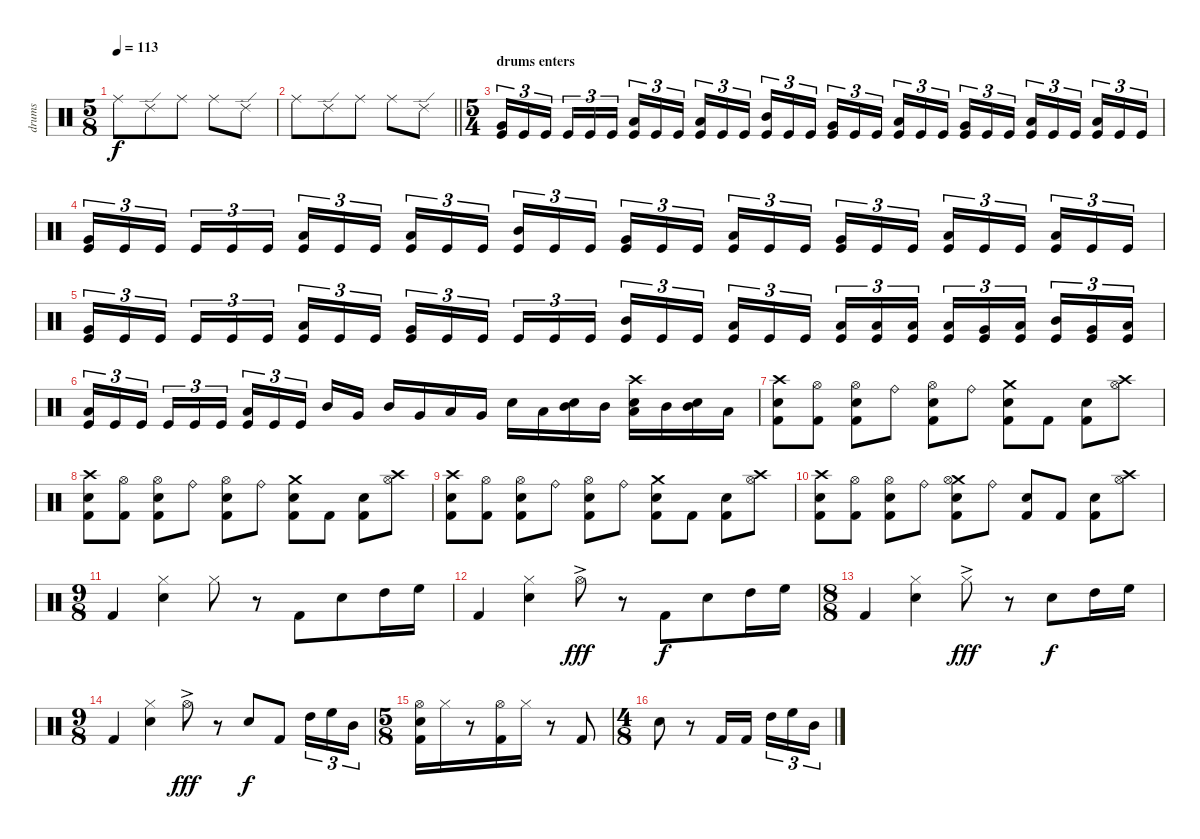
\track ("drums" "drums") {instrument percussion}
\staff {score}
\articulation defaults
\ts (5 8)
\tempo 113
\clef neutral
\ks c "Ride (middle)".8{dy f} "Ride (edge) 2".8 "Ride (middle)".8 "Ride (middle)".8 "Ride (edge) 2".8
|
\barLineRight lightlight "Ride (middle)".8 "Ride (edge) 2".8 "Ride (middle)".8 "Ride (middle)".8 "Ride (edge) 2".8
|
\ts (5 4)
\section ("" "drums enters")
("Very Low Tom (hit)" "Kick (hit)").16{tu (3 2)} "Kick (hit)".16{tu (3 2)} "Kick (hit)".16{tu (3 2)} "Kick (hit)".16{tu (3 2)} "Kick (hit)".16{tu (3 2)} "Kick (hit)".16{tu (3 2)} ("Low Floor Tom (hit)" "Kick (hit)").16{tu (3 2)} "Kick (hit)".16{tu (3 2)} "Kick (hit)".16{tu (3 2)} ("Low Tom (hit)" "Kick (hit)").16{tu (3 2)} "Kick (hit)".16{tu (3 2)} "Kick (hit)".16{tu (3 2)} ("Mid Tom (hit)" "Kick (hit)").16{tu (3 2)} "Kick (hit)".16{tu (3 2)} "Kick (hit)".16{tu (3 2)} ("Very Low Tom (hit)" "Kick (hit)").16{tu (3 2)} "Kick (hit)".16{tu (3 2)} "Kick (hit)".16{tu (3 2)} ("Low Floor Tom (hit)" "Kick (hit)").16{tu (3 2)} "Kick (hit)".16{tu (3 2)} "Kick (hit)".16{tu (3 2)} ("Very Low Tom (hit)" "Kick (hit)").16{tu (3 2)} "Kick (hit)".16{tu (3 2)} "Kick (hit)".16{tu (3 2)} ("Low Floor Tom (hit)" "Kick (hit)").16{tu (3 2)} "Kick (hit)".16{tu (3 2)} "Kick (hit)".16{tu (3 2)} ("Low Tom (hit)" "Kick (hit)").16{tu (3 2)} "Kick (hit)".16{tu (3 2)} "Kick (hit)".16{tu (3 2)} |
("Very Low Tom (hit)" "Kick (hit)").16{tu (3 2)} "Kick (hit)".16{tu (3 2)} "Kick (hit)".16{tu (3 2)} "Kick (hit)".16{tu (3 2)} "Kick (hit)".16{tu (3 2)} "Kick (hit)".16{tu (3 2)} ("Low Floor Tom (hit)" "Kick (hit)").16{tu (3 2)} "Kick (hit)".16{tu (3 2)} "Kick (hit)".16{tu (3 2)} ("Low Tom (hit)" "Kick (hit)").16{tu (3 2)} "Kick (hit)".16{tu (3 2)} "Kick (hit)".16{tu (3 2)} ("Mid Tom (hit)" "Kick (hit)").16{tu (3 2)} "Kick (hit)".16{tu (3 2)} "Kick (hit)".16{tu (3 2)} ("Very Low Tom (hit)" "Kick (hit)").16{tu (3 2)} "Kick (hit)".16{tu (3 2)} "Kick (hit)".16{tu (3 2)} ("Low Floor Tom (hit)" "Kick (hit)").16{tu (3 2)} "Kick (hit)".16{tu (3 2)} "Kick (hit)".16{tu (3 2)} ("Very Low Tom (hit)" "Kick (hit)").16{tu (3 2)} "Kick (hit)".16{tu (3 2)} "Kick (hit)".16{tu (3 2)} ("Low Floor Tom (hit)" "Kick (hit)").16{tu (3 2)} "Kick (hit)".16{tu (3 2)} "Kick (hit)".16{tu (3 2)} ("Low Tom (hit)" "Kick (hit)").16{tu (3 2)} "Kick (hit)".16{tu (3 2)} "Kick (hit)".16{tu (3 2)} |
("Very Low Tom (hit)" "Kick (hit)").16{tu (3 2)} "Kick (hit)".16{tu (3 2)} "Kick (hit)".16{tu (3 2)} "Kick (hit)".16{tu (3 2)} "Kick (hit)".16{tu (3 2)} "Kick (hit)".16{tu (3 2)} ("Low Floor Tom (hit)" "Kick (hit)").16{tu (3 2)} "Kick (hit)".16{tu (3 2)} "Kick (hit)".16{tu (3 2)} ("Very Low Tom (hit)" "Kick (hit)").16{tu (3 2)} "Kick (hit)".16{tu (3 2)} "Kick (hit)".16{tu (3 2)} "Kick (hit)".16{tu (3 2)} "Kick (hit)".16{tu (3 2)} "Kick (hit)".16{tu (3 2)} ("Mid Tom (hit)" "Kick (hit)").16{tu (3 2)} "Kick (hit)".16{tu (3 2)} "Kick (hit)".16{tu (3 2)} ("Low Floor Tom (hit)" "Kick (hit)").16{tu (3 2)} "Kick (hit)".16{tu (3 2)} "Kick (hit)".16{tu (3 2)} ("Low Tom (hit)" "Kick (hit)").16{tu (3 2)} ("Low Floor Tom (hit)" "Kick (hit)").16{tu (3 2)} ("Low Floor Tom (hit)" "Kick (hit)").16{tu (3 2)} ("Low Tom (hit)" "Kick (hit)").16{tu (3 2)} ("Very Low Tom (hit)" "Kick (hit)").16{tu (3 2)} ("Low Floor Tom (hit)" "Kick (hit)").16{tu (3 2)} ("Mid Tom (hit)" "Kick (hit)").16{tu (3 2)} ("Very Low Tom (hit)" "Kick (hit)").16{tu (3 2)} ("Low Floor Tom (hit)" "Kick (hit)").16{tu (3 2)} |
("Low Floor Tom (hit)" "Kick (hit)").16{tu (3 2)} "Kick (hit)".16{tu (3 2)} "Kick (hit)".16{tu (3 2)} "Kick (hit)".16{tu (3 2)} "Kick (hit)".16{tu (3 2)} "Kick (hit)".16{tu (3 2)} ("Low Floor Tom (hit)" "Kick (hit)").16{tu (3 2)} "Kick (hit)".16{tu (3 2)} "Kick (hit)".16{tu (3 2)} "Mid Tom (hit)".16 "Very Low Tom (hit)".16 "Mid Tom (hit)".16 "Very Low Tom (hit)".16 "Low Floor Tom (hit)".16 "Very Low Tom (hit)".16 "Electric Snare (hit)".16 "Low Floor Tom (hit)".16 ("Electric Snare (hit)" "Mid Tom (hit)").16 "Mid Tom (hit)".16 ("Crash high (hit)" "Electric Snare (hit)" "Low Floor Tom (hit)").16 "Mid Tom (hit)".16 ("Electric Snare (hit)" "Mid Tom (hit)").16 "Low Floor Tom (hit)".16 |
("Crash high (hit)" "Kick (hit) 2" "Electric Snare (hit)").8 ("Hi-Hat (open)" "Kick (hit) 2").8 ("Kick (hit) 2" "Hi-Hat (open)" "Electric Snare (hit)").8 "Ride (bell)".8 ("Kick (hit) 2" "Hi-Hat (open)" "Electric Snare (hit)").8 "Ride (bell)".8 ("Crash medium (hit)" "Kick (hit) 2" "Electric Snare (hit)").8 "Kick (hit) 2".8 ("Kick (hit) 2" "Electric Snare (hit)").8 ("Crash high (hit)" "Hi-Hat (open)").8 |
("Crash high (hit)" "Kick (hit) 2" "Electric Snare (hit)").8 ("Hi-Hat (open)" "Kick (hit) 2").8 ("Kick (hit) 2" "Hi-Hat (open)" "Electric Snare (hit)").8 "Ride (bell)".8 ("Kick (hit) 2" "Hi-Hat (open)" "Electric Snare (hit)").8 "Ride (bell)".8 ("Crash medium (hit)" "Kick (hit) 2" "Electric Snare (hit)").8 "Kick (hit) 2".8 ("Kick (hit) 2" "Electric Snare (hit)").8 ("Crash high (hit)" "Hi-Hat (open)").8 |
("Crash high (hit)" "Kick (hit) 2" "Electric Snare (hit)").8 ("Hi-Hat (open)" "Kick (hit) 2").8 ("Kick (hit) 2" "Hi-Hat (open)" "Electric Snare (hit)").8 "Ride (bell)".8 ("Kick (hit) 2" "Hi-Hat (open)" "Electric Snare (hit)").8 "Ride (bell)".8 ("Crash medium (hit)" "Kick (hit) 2" "Electric Snare (hit)").8 "Kick (hit) 2".8 ("Kick (hit) 2" "Electric Snare (hit)").8 ("Crash high (hit)" "Hi-Hat (open)").8 |
("Crash high (hit)" "Kick (hit) 2" "Electric Snare (hit)").8 ("Hi-Hat (open)" "Kick (hit) 2").8 ("Kick (hit) 2" "Hi-Hat (open)" "Electric Snare (hit)").8 "Ride (bell)".8 ("Crash medium (hit)" "Kick (hit) 2" "Hi-Hat (open)" "Electric Snare (hit)").8 "Ride (bell)".8 ("Kick (hit) 2" "Electric Snare (hit)").8 "Kick (hit) 2".8 ("Kick (hit) 2" "Electric Snare (hit)").8 ("Crash high (hit)" "Hi-Hat (open)").8 |
\ts (9 8)
"Kick (hit) 2".4 ("Electric Snare (hit)" "Hi-Hat (closed)").4 "Hi-Hat (closed)".8 r.8 "Kick (hit) 2".8 "Electric Snare (hit)".8 "High Tom (hit)".16 "High Floor Tom (hit)".16 |
"Kick (hit) 2".4 ("Electric Snare (hit)" "Hi-Hat (closed)").4 "Hi-Hat (open)"{ac}.8{dy fff} r.8 "Kick (hit) 2".8{dy f} "Electric Snare (hit)".8 "High Tom (hit)".16 "High Floor Tom (hit)".16 |
\ts (8 8)
"Kick (hit) 2".4 ("Electric Snare (hit)" "Hi-Hat (closed)").4 "Hi-Hat (closed)"{ac}.8{dy fff} r.8 "Electric Snare (hit)".8{dy f} "High Tom (hit)".16 "High Floor Tom (hit)".16 |
\ts (9 8)
"Kick (hit) 2".4 ("Electric Snare (hit)" "Hi-Hat (closed)").4 "Hi-Hat (open)"{ac}.8{dy fff} r.8 "Electric Snare (hit)".8{dy f} "Kick (hit) 2".8 "High Tom (hit)".16{tu (3 2)} "High Floor Tom (hit)".16{tu (3 2)} "Mid Tom (hit)".16{tu (3 2)} |
\ts (5 8)
("Electric Snare (hit)" "Kick (hit) 2" "Hi-Hat (open)").16 "Hi-Hat (closed)".16 r.8 ("Kick (hit) 2" "Hi-Hat (open)").16 "Hi-Hat (closed)".16 r.8 "Kick (hit) 2".8 |
\ts (4 8)
"Electric Snare (hit)".8 r.8 "Kick (hit) 2".16 "Kick (hit) 2".16 "High Tom (hit)".16{tu (3 2)} "High Floor Tom (hit)".16{tu (3 2)} "Mid Tom (hit)".16{tu (3 2)}
